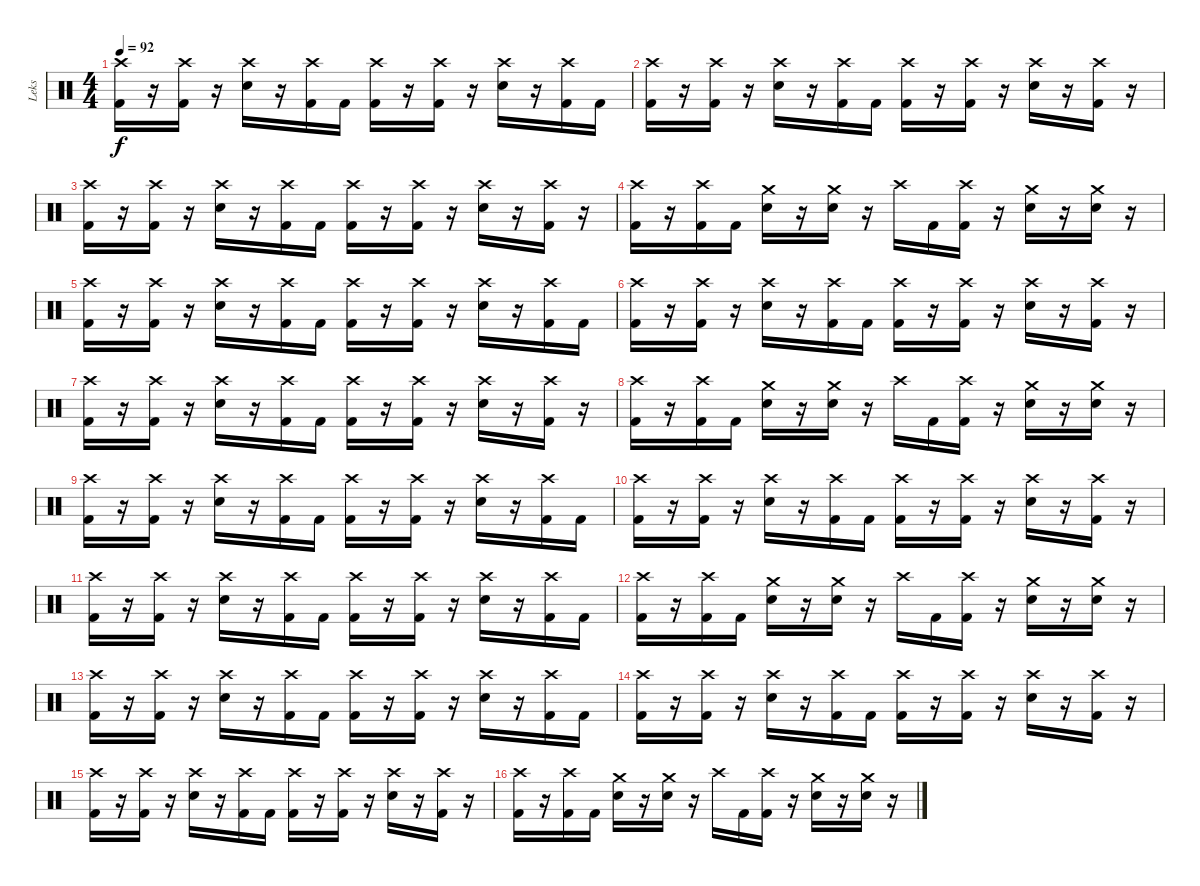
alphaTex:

\track ("Leks" "Leks") {instrument percussion}
\staff {score}
\articulation defaults
\ts (4 4)
\tempo 92
\clef neutral
\ks c
("Crash high (hit)" "Kick (hit) 2").16{dy f} r.16 ("Crash high (hit)" "Kick (hit) 2").16 r.16 ("Crash high (hit)" "Snare (hit) 2").16 r.16 ("Crash high (hit)" "Kick (hit) 2").16 "Kick (hit) 2".16 ("Crash high (hit)" "Kick (hit) 2").16 r.16 ("Crash high (hit)" "Kick (hit) 2").16 r.16 ("Crash high (hit)" "Snare (hit) 2").16 r.16 ("Crash high (hit)" "Kick (hit) 2").16 "Kick (hit) 2".16 |
("Crash high (hit)" "Kick (hit) 2").16 r.16 ("Crash high (hit)" "Kick (hit) 2").16 r.16 ("Crash high (hit)" "Snare (hit) 2").16 r.16 ("Crash high (hit)" "Kick (hit) 2").16 "Kick (hit) 2".16 ("Crash high (hit)" "Kick (hit) 2").16 r.16 ("Crash high (hit)" "Kick (hit) 2").16 r.16 ("Crash high (hit)" "Snare (hit) 2").16 r.16 ("Crash high (hit)" "Kick (hit) 2").16 r.16 |
("Crash high (hit)" "Kick (hit) 2").16 r.16 ("Crash high (hit)" "Kick (hit) 2").16 r.16 ("Crash high (hit)" "Snare (hit) 2").16 r.16 ("Crash high (hit)" "Kick (hit) 2").16 "Kick (hit) 2".16 ("Crash high (hit)" "Kick (hit) 2").16 r.16 ("Crash high (hit)" "Kick (hit) 2").16 r.16 ("Crash high (hit)" "Snare (hit) 2").16 r.16 ("Crash high (hit)" "Kick (hit) 2").16 r.16 |
("Crash high (hit)" "Kick (hit) 2").16 r.16 ("Crash high (hit)" "Kick (hit) 2").16 "Kick (hit) 2".16 ("Crash medium (hit)" "Snare (hit) 2").16 r.16 ("Crash medium (hit)" "Snare (hit) 2").16 r.16 "Crash high (hit)".16 "Kick (hit) 2".16 ("Crash high (hit)" "Kick (hit) 2").16 r.16 ("Crash medium (hit)" "Snare (hit) 2").16 r.16 ("Crash medium (hit)" "Snare (hit) 2").16 r.16 |
("Crash high (hit)" "Kick (hit) 2").16 r.16 ("Crash high (hit)" "Kick (hit) 2").16 r.16 ("Crash high (hit)" "Snare (hit) 2").16 r.16 ("Crash high (hit)" "Kick (hit) 2").16 "Kick (hit) 2".16 ("Crash high (hit)" "Kick (hit) 2").16 r.16 ("Crash high (hit)" "Kick (hit) 2").16 r.16 ("Crash high (hit)" "Snare (hit) 2").16 r.16 ("Crash high (hit)" "Kick (hit) 2").16 "Kick (hit) 2".16 |
("Crash high (hit)" "Kick (hit) 2").16 r.16 ("Crash high (hit)" "Kick (hit) 2").16 r.16 ("Crash high (hit)" "Snare (hit) 2").16 r.16 ("Crash high (hit)" "Kick (hit) 2").16 "Kick (hit) 2".16 ("Crash high (hit)" "Kick (hit) 2").16 r.16 ("Crash high (hit)" "Kick (hit) 2").16 r.16 ("Crash high (hit)" "Snare (hit) 2").16 r.16 ("Crash high (hit)" "Kick (hit) 2").16 r.16 |
("Crash high (hit)" "Kick (hit) 2").16 r.16 ("Crash high (hit)" "Kick (hit) 2").16 r.16 ("Crash high (hit)" "Snare (hit) 2").16 r.16 ("Crash high (hit)" "Kick (hit) 2").16 "Kick (hit) 2".16 ("Crash high (hit)" "Kick (hit) 2").16 r.16 ("Crash high (hit)" "Kick (hit) 2").16 r.16 ("Crash high (hit)" "Snare (hit) 2").16 r.16 ("Crash high (hit)" "Kick (hit) 2").16 r.16 |
("Crash high (hit)" "Kick (hit) 2").16 r.16 ("Crash high (hit)" "Kick (hit) 2").16 "Kick (hit) 2".16 ("Crash medium (hit)" "Snare (hit) 2").16 r.16 ("Crash medium (hit)" "Snare (hit) 2").16 r.16 "Crash high (hit)".16 "Kick (hit) 2".16 ("Crash high (hit)" "Kick (hit) 2").16 r.16 ("Crash medium (hit)" "Snare (hit) 2").16 r.16 ("Crash medium (hit)" "Snare (hit) 2").16 r.16 |
("Crash high (hit)" "Kick (hit) 2").16 r.16 ("Crash high (hit)" "Kick (hit) 2").16 r.16 ("Crash high (hit)" "Snare (hit) 2").16 r.16 ("Crash high (hit)" "Kick (hit) 2").16 "Kick (hit) 2".16 ("Crash high (hit)" "Kick (hit) 2").16 r.16 ("Crash high (hit)" "Kick (hit) 2").16 r.16 ("Crash high (hit)" "Snare (hit) 2").16 r.16 ("Crash high (hit)" "Kick (hit) 2").16 "Kick (hit) 2".16 |
("Crash high (hit)" "Kick (hit) 2").16 r.16 ("Crash high (hit)" "Kick (hit) 2").16 r.16 ("Crash high (hit)" "Snare (hit) 2").16 r.16 ("Crash high (hit)" "Kick (hit) 2").16 "Kick (hit) 2".16 ("Crash high (hit)" "Kick (hit) 2").16 r.16 ("Crash high (hit)" "Kick (hit) 2").16 r.16 ("Crash high (hit)" "Snare (hit) 2").16 r.16 ("Crash high (hit)" "Kick (hit) 2").16 r.16 |
("Crash high (hit)" "Kick (hit) 2").16 r.16 ("Crash high (hit)" "Kick (hit) 2").16 r.16 ("Crash high (hit)" "Snare (hit) 2").16 r.16 ("Crash high (hit)" "Kick (hit) 2").16 "Kick (hit) 2".16 ("Crash high (hit)" "Kick (hit) 2").16 r.16 ("Crash high (hit)" "Kick (hit) 2").16 r.16 ("Crash high (hit)" "Snare (hit) 2").16 r.16 ("Crash high (hit)" "Kick (hit) 2").16 "Kick (hit) 2".16 |
("Crash high (hit)" "Kick (hit) 2").16 r.16 ("Crash high (hit)" "Kick (hit) 2").16 "Kick (hit) 2".16 ("Crash medium (hit)" "Snare (hit) 2").16 r.16 ("Crash medium (hit)" "Snare (hit) 2").16 r.16 "Crash high (hit)".16 "Kick (hit) 2".16 ("Crash high (hit)" "Kick (hit) 2").16 r.16 ("Crash medium (hit)" "Snare (hit) 2").16 r.16 ("Crash medium (hit)" "Snare (hit) 2").16 r.16 |
("Crash high (hit)" "Kick (hit) 2").16 r.16 ("Crash high (hit)" "Kick (hit) 2").16 r.16 ("Crash high (hit)" "Snare (hit) 2").16 r.16 ("Crash high (hit)" "Kick (hit) 2").16 "Kick (hit) 2".16 ("Crash high (hit)" "Kick (hit) 2").16 r.16 ("Crash high (hit)" "Kick (hit) 2").16 r.16 ("Crash high (hit)" "Snare (hit) 2").16 r.16 ("Crash high (hit)" "Kick (hit) 2").16 "Kick (hit) 2".16 |
("Crash high (hit)" "Kick (hit) 2").16 r.16 ("Crash high (hit)" "Kick (hit) 2").16 r.16 ("Crash high (hit)" "Snare (hit) 2").16 r.16 ("Crash high (hit)" "Kick (hit) 2").16 "Kick (hit) 2".16 ("Crash high (hit)" "Kick (hit) 2").16 r.16 ("Crash high (hit)" "Kick (hit) 2").16 r.16 ("Crash high (hit)" "Snare (hit) 2").16 r.16 ("Crash high (hit)" "Kick (hit) 2").16 r.16 |
("Crash high (hit)" "Kick (hit) 2").16 r.16 ("Crash high (hit)" "Kick (hit) 2").16 r.16 ("Crash high (hit)" "Snare (hit) 2").16 r.16 ("Crash high (hit)" "Kick (hit) 2").16 "Kick (hit) 2".16 ("Crash high (hit)" "Kick (hit) 2").16 r.16 ("Crash high (hit)" "Kick (hit) 2").16 r.16 ("Crash high (hit)" "Snare (hit) 2").16 r.16 ("Crash high (hit)" "Kick (hit) 2").16 r.16 |
("Crash high (hit)" "Kick (hit) 2").16 r.16 ("Crash high (hit)" "Kick (hit) 2").16 "Kick (hit) 2".16 ("Crash medium (hit)" "Snare (hit) 2").16 r.16 ("Crash medium (hit)" "Snare (hit) 2").16 r.16 "Crash high (hit)".16 "Kick (hit) 2".16 ("Crash high (hit)" "Kick (hit) 2").16 r.16 ("Crash medium (hit)" "Snare (hit) 2").16 r.16 ("Crash medium (hit)" "Snare (hit) 2").16 r.16
